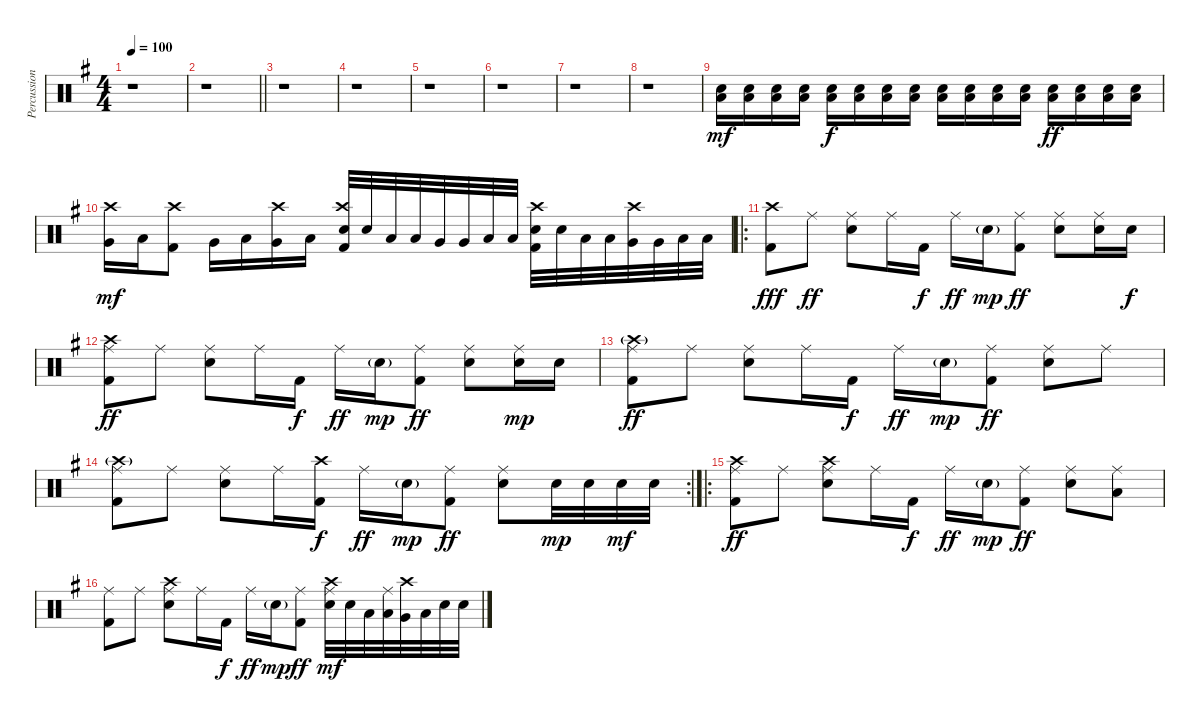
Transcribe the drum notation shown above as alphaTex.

\track ("Percussion" "Percussion") {instrument percussion}
\staff {score}
\articulation defaults
\ts (4 4)
\tempo 100
\clef neutral
\ks g
r.1{dy f} |
\barLineRight lightlight
r.1 |
r.1 |
r.1 |
r.1 |
r.1 |
r.1 |
r.1 |
("Electric Snare (hit)" "Low Floor Tom (hit)").16{dy mf} ("Electric Snare (hit)" "Low Floor Tom (hit)").16 ("Electric Snare (hit)" "Low Floor Tom (hit)").16 ("Electric Snare (hit)" "Low Floor Tom (hit)").16 ("Electric Snare (hit)" "Low Floor Tom (hit)").16{dy f} ("Electric Snare (hit)" "Low Floor Tom (hit)").16 ("Electric Snare (hit)" "Low Floor Tom (hit)").16 ("Electric Snare (hit)" "Low Floor Tom (hit)").16 ("Electric Snare (hit)" "Low Floor Tom (hit)").16 ("Electric Snare (hit)" "Low Floor Tom (hit)").16 ("Electric Snare (hit)" "Low Floor Tom (hit)").16 ("Electric Snare (hit)" "Low Floor Tom (hit)").16 ("Electric Snare (hit)" "Low Floor Tom (hit)").16{dy ff} ("Electric Snare (hit)" "Low Floor Tom (hit)").16 ("Electric Snare (hit)" "Low Floor Tom (hit)").16 ("Electric Snare (hit)" "Low Floor Tom (hit)").16 |
("Crash high (hit)" "Very Low Tom (hit)").16{dy mf} "Low Floor Tom (hit)".16 ("Crash high (hit)" "Kick (hit) 2").8 "Very Low Tom (hit)".16 "Low Floor Tom (hit)".16 ("Crash high (hit)" "Very Low Tom (hit)").16 "Low Floor Tom (hit)".16 ("Crash high (hit)" "Electric Snare (hit)" "Kick (hit) 2").32 "Electric Snare (hit)".32 "Low Tom (hit)".32 "Low Tom (hit)".32 "Very Low Tom (hit)".32 "Very Low Tom (hit)".32 "Low Floor Tom (hit)".32 "Low Floor Tom (hit)".32 ("Crash high (hit)" "Electric Snare (hit)" "Kick (hit) 2").32 "Electric Snare (hit)".32 "Low Tom (hit)".32 "Low Tom (hit)".32 ("Crash high (hit)" "Very Low Tom (hit)").32 "Very Low Tom (hit)".32 "Low Floor Tom (hit)".32 "Low Floor Tom (hit)".32 |
\ro
("Crash high (hit)" "Kick (hit) 2").8{dy fff} "Ride (middle)".8{dy ff} ("Ride (middle)" "Electric Snare (hit)").8 "Ride (middle)".16 "Kick (hit) 2".16{dy f} "Ride (middle)".16{dy ff} "Electric Snare (hit)"{g}.16{dy mp} ("Ride (middle)" "Kick (hit) 2").8{dy ff} ("Ride (middle)" "Electric Snare (hit)").8 ("Ride (middle)" "Electric Snare (hit)").16 "Electric Snare (hit)".16{dy f} |
("Ride (middle)" "Kick (hit) 2" "Crash high (hit)").8{dy ff} "Ride (middle)".8 ("Ride (middle)" "Electric Snare (hit)").8 "Ride (middle)".16 "Kick (hit) 2".16{dy f} "Ride (middle)".16{dy ff} "Electric Snare (hit)"{g}.16{dy mp} ("Ride (middle)" "Kick (hit) 2").8{dy ff} ("Ride (middle)" "Electric Snare (hit)").8 ("Ride (middle)" "Electric Snare (hit)").16{dy mp} "Electric Snare (hit)".16 |
("Crash high (hit)"{g} "Ride (middle)" "Kick (hit) 2").8{dy ff} "Ride (middle)".8 ("Ride (middle)" "Electric Snare (hit)").8 "Ride (middle)".16 "Kick (hit) 2".16{dy f} "Ride (middle)".16{dy ff} "Electric Snare (hit)"{g}.16{dy mp} ("Ride (middle)" "Kick (hit) 2").8{dy ff} ("Ride (middle)" "Electric Snare (hit)").8 "Ride (middle)".8 |
\rc 2
("Crash high (hit)"{g} "Ride (middle)" "Kick (hit) 2").8 "Ride (middle)".8 ("Ride (middle)" "Electric Snare (hit)").8 "Ride (middle)".16 ("Crash high (hit)" "Kick (hit) 2").16{dy f} "Ride (middle)".16{dy ff} "Electric Snare (hit)"{g}.16{dy mp} ("Ride (middle)" "Kick (hit) 2").8{dy ff} ("Ride (middle)" "Electric Snare (hit)").8 "Electric Snare (hit)".32{dy mp} "Electric Snare (hit)".32 "Electric Snare (hit)".32{dy mf} "Electric Snare (hit)".32 |
\ro
("Crash high (hit)" "Ride (middle)" "Kick (hit) 2").8{dy ff} "Ride (middle)".8 ("Crash high (hit)" "Ride (middle)" "Electric Snare (hit)").8 "Ride (middle)".16 "Kick (hit) 2".16{dy f} "Ride (middle)".16{dy ff} "Electric Snare (hit)"{g}.16{dy mp} ("Ride (middle)" "Kick (hit) 2").8{dy ff} ("Ride (middle)" "Electric Snare (hit)").8 ("Ride (middle)" "Low Floor Tom (hit)").8 |
("Ride (middle)" "Kick (hit) 2").8 "Ride (middle)".8 ("Crash high (hit)" "Ride (middle)" "Electric Snare (hit)").8 "Ride (middle)".16 "Kick (hit) 2".16{dy f} "Ride (middle)".16{dy ff} "Electric Snare (hit)"{g}.16{dy mp} ("Ride (middle)" "Kick (hit) 2").8{dy ff} ("Ride (middle)" "Crash high (hit)" "Electric Snare (hit)").32{dy mf} "Electric Snare (hit)".32 "Low Tom (hit)".32 ("Ride (middle)" "Low Tom (hit)").32 ("Crash high (hit)" "Very Low Tom (hit)").32 "Low Floor Tom (hit)".32 "Electric Snare (hit)".32 "Electric Snare (hit)".32
